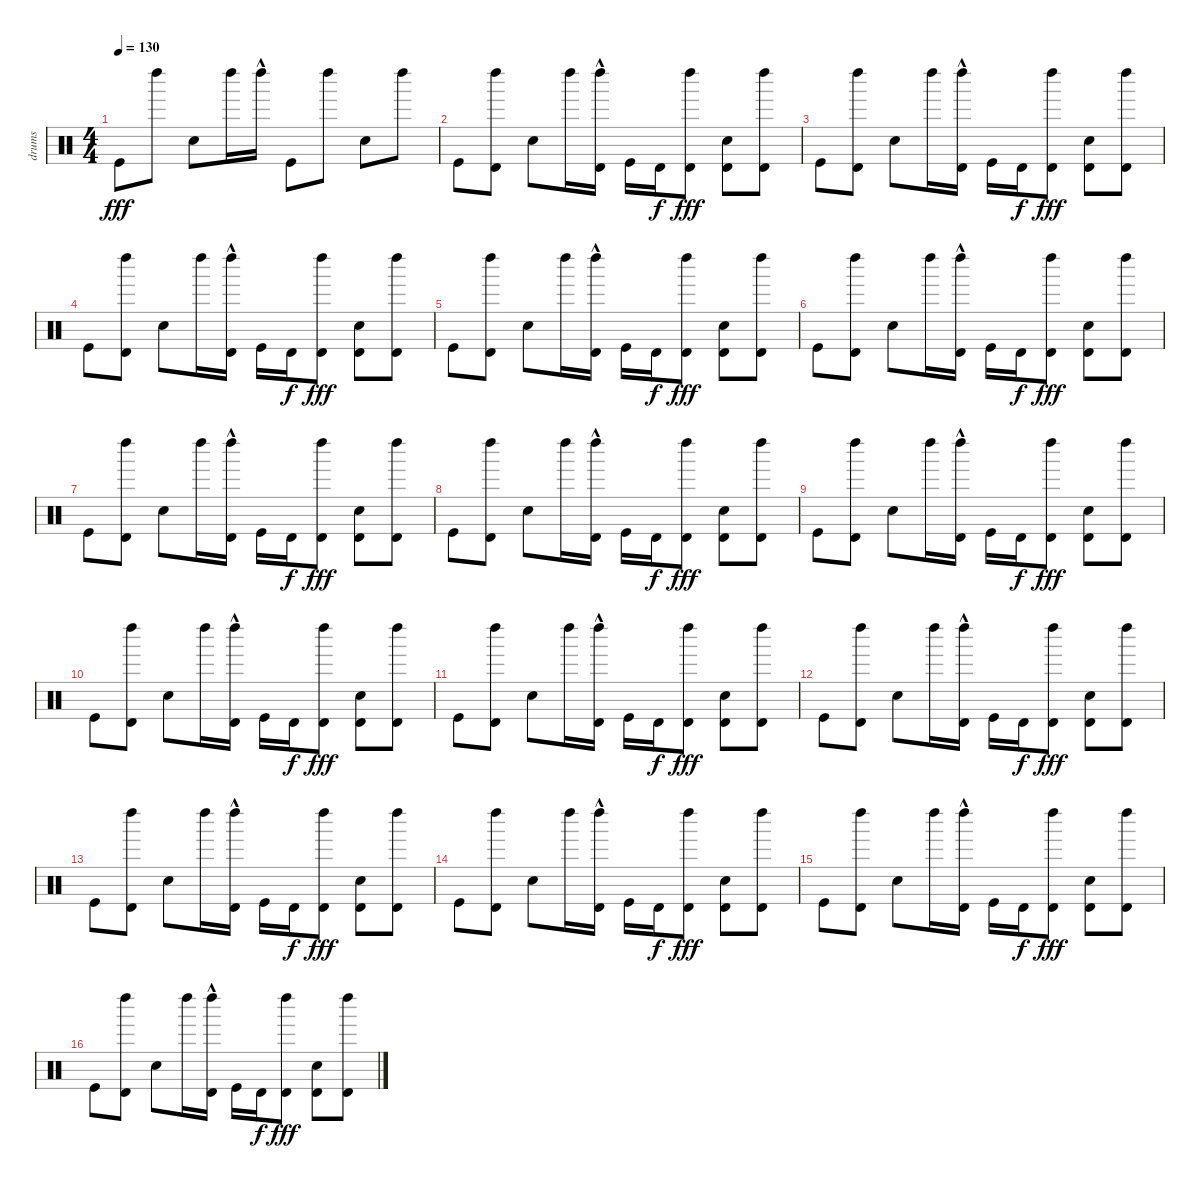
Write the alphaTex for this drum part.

\track ("drums" "drums") {instrument percussion}
\staff {score}
\articulation defaults
\ts (4 4)
\tempo 130
\clef neutral
\ks c "Kick (hit)".8{dy fff} "Left Maraca (hit)".8 "Snare (hit) 2".8 "Left Maraca (hit)".16 "Left Maraca (hit)"{hac}.16 "Kick (hit)".8 "Left Maraca (hit)".8 "Snare (hit) 2".8 "Left Maraca (hit)".8
|
"Kick (hit)".8 ("Left Maraca (hit)" "Timbale high (hit)").8 "Snare (hit) 2".8 "Left Maraca (hit)".16 ("Left Maraca (hit)"{hac} "Timbale high (hit)").16 "Kick (hit)".16 "Timbale high (hit)".16{dy f} ("Left Maraca (hit)" "Timbale high (hit)").8{dy fff} ("Snare (hit) 2" "Timbale high (hit)").8 ("Left Maraca (hit)" "Timbale high (hit)").8 |
"Kick (hit)".8 ("Left Maraca (hit)" "Timbale high (hit)").8 "Snare (hit) 2".8 "Left Maraca (hit)".16 ("Left Maraca (hit)"{hac} "Timbale high (hit)").16 "Kick (hit)".16 "Timbale high (hit)".16{dy f} ("Left Maraca (hit)" "Timbale high (hit)").8{dy fff} ("Snare (hit) 2" "Timbale high (hit)").8 ("Left Maraca (hit)" "Timbale high (hit)").8 |
"Kick (hit)".8 ("Left Maraca (hit)" "Timbale high (hit)").8 "Snare (hit) 2".8 "Left Maraca (hit)".16 ("Left Maraca (hit)"{hac} "Timbale high (hit)").16 "Kick (hit)".16 "Timbale high (hit)".16{dy f} ("Left Maraca (hit)" "Timbale high (hit)").8{dy fff} ("Snare (hit) 2" "Timbale high (hit)").8 ("Left Maraca (hit)" "Timbale high (hit)").8 |
"Kick (hit)".8 ("Left Maraca (hit)" "Timbale high (hit)").8 "Snare (hit) 2".8 "Left Maraca (hit)".16 ("Left Maraca (hit)"{hac} "Timbale high (hit)").16 "Kick (hit)".16 "Timbale high (hit)".16{dy f} ("Left Maraca (hit)" "Timbale high (hit)").8{dy fff} ("Snare (hit) 2" "Timbale high (hit)").8 ("Left Maraca (hit)" "Timbale high (hit)").8 |
"Kick (hit)".8 ("Left Maraca (hit)" "Timbale high (hit)").8 "Snare (hit) 2".8 "Left Maraca (hit)".16 ("Left Maraca (hit)"{hac} "Timbale high (hit)").16 "Kick (hit)".16 "Timbale high (hit)".16{dy f} ("Left Maraca (hit)" "Timbale high (hit)").8{dy fff} ("Snare (hit) 2" "Timbale high (hit)").8 ("Left Maraca (hit)" "Timbale high (hit)").8 |
"Kick (hit)".8 ("Left Maraca (hit)" "Timbale high (hit)").8 "Snare (hit) 2".8 "Left Maraca (hit)".16 ("Left Maraca (hit)"{hac} "Timbale high (hit)").16 "Kick (hit)".16 "Timbale high (hit)".16{dy f} ("Left Maraca (hit)" "Timbale high (hit)").8{dy fff} ("Snare (hit) 2" "Timbale high (hit)").8 ("Left Maraca (hit)" "Timbale high (hit)").8 |
"Kick (hit)".8 ("Left Maraca (hit)" "Timbale high (hit)").8 "Snare (hit) 2".8 "Left Maraca (hit)".16 ("Left Maraca (hit)"{hac} "Timbale high (hit)").16 "Kick (hit)".16 "Timbale high (hit)".16{dy f} ("Left Maraca (hit)" "Timbale high (hit)").8{dy fff} ("Snare (hit) 2" "Timbale high (hit)").8 ("Left Maraca (hit)" "Timbale high (hit)").8 |
"Kick (hit)".8 ("Left Maraca (hit)" "Timbale high (hit)").8 "Snare (hit) 2".8 "Left Maraca (hit)".16 ("Left Maraca (hit)"{hac} "Timbale high (hit)").16 "Kick (hit)".16 "Timbale high (hit)".16{dy f} ("Left Maraca (hit)" "Timbale high (hit)").8{dy fff} ("Snare (hit) 2" "Timbale high (hit)").8 ("Left Maraca (hit)" "Timbale high (hit)").8 |
"Kick (hit)".8 ("Left Maraca (hit)" "Timbale high (hit)").8 "Snare (hit) 2".8 "Left Maraca (hit)".16 ("Left Maraca (hit)"{hac} "Timbale high (hit)").16 "Kick (hit)".16 "Timbale high (hit)".16{dy f} ("Left Maraca (hit)" "Timbale high (hit)").8{dy fff} ("Snare (hit) 2" "Timbale high (hit)").8 ("Left Maraca (hit)" "Timbale high (hit)").8 |
"Kick (hit)".8 ("Left Maraca (hit)" "Timbale high (hit)").8 "Snare (hit) 2".8 "Left Maraca (hit)".16 ("Left Maraca (hit)"{hac} "Timbale high (hit)").16 "Kick (hit)".16 "Timbale high (hit)".16{dy f} ("Left Maraca (hit)" "Timbale high (hit)").8{dy fff} ("Snare (hit) 2" "Timbale high (hit)").8 ("Left Maraca (hit)" "Timbale high (hit)").8 |
"Kick (hit)".8 ("Left Maraca (hit)" "Timbale high (hit)").8 "Snare (hit) 2".8 "Left Maraca (hit)".16 ("Left Maraca (hit)"{hac} "Timbale high (hit)").16 "Kick (hit)".16 "Timbale high (hit)".16{dy f} ("Left Maraca (hit)" "Timbale high (hit)").8{dy fff} ("Snare (hit) 2" "Timbale high (hit)").8 ("Left Maraca (hit)" "Timbale high (hit)").8 |
"Kick (hit)".8 ("Left Maraca (hit)" "Timbale high (hit)").8 "Snare (hit) 2".8 "Left Maraca (hit)".16 ("Left Maraca (hit)"{hac} "Timbale high (hit)").16 "Kick (hit)".16 "Timbale high (hit)".16{dy f} ("Left Maraca (hit)" "Timbale high (hit)").8{dy fff} ("Snare (hit) 2" "Timbale high (hit)").8 ("Left Maraca (hit)" "Timbale high (hit)").8 |
"Kick (hit)".8 ("Left Maraca (hit)" "Timbale high (hit)").8 "Snare (hit) 2".8 "Left Maraca (hit)".16 ("Left Maraca (hit)"{hac} "Timbale high (hit)").16 "Kick (hit)".16 "Timbale high (hit)".16{dy f} ("Left Maraca (hit)" "Timbale high (hit)").8{dy fff} ("Snare (hit) 2" "Timbale high (hit)").8 ("Left Maraca (hit)" "Timbale high (hit)").8 |
"Kick (hit)".8 ("Left Maraca (hit)" "Timbale high (hit)").8 "Snare (hit) 2".8 "Left Maraca (hit)".16 ("Left Maraca (hit)"{hac} "Timbale high (hit)").16 "Kick (hit)".16 "Timbale high (hit)".16{dy f} ("Left Maraca (hit)" "Timbale high (hit)").8{dy fff} ("Snare (hit) 2" "Timbale high (hit)").8 ("Left Maraca (hit)" "Timbale high (hit)").8 |
"Kick (hit)".8 ("Left Maraca (hit)" "Timbale high (hit)").8 "Snare (hit) 2".8 "Left Maraca (hit)".16 ("Left Maraca (hit)"{hac} "Timbale high (hit)").16 "Kick (hit)".16 "Timbale high (hit)".16{dy f} ("Left Maraca (hit)" "Timbale high (hit)").8{dy fff} ("Snare (hit) 2" "Timbale high (hit)").8 ("Left Maraca (hit)" "Timbale high (hit)").8
